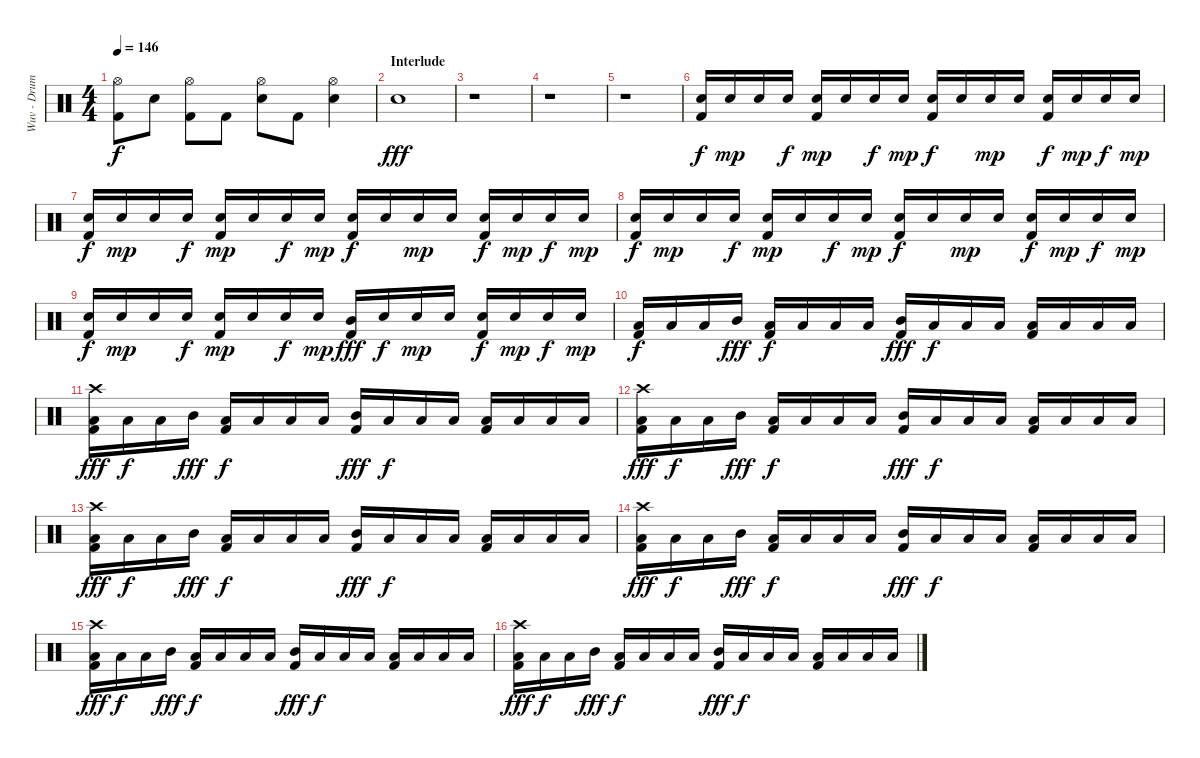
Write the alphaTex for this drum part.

\track ("Wuv - Drums" "Wuv - Drum") {instrument percussion}
\staff {score}
\articulation defaults
\ts (4 4)
\tempo 146
\clef neutral
\ks c
("Hi-Hat (open)" "Kick (hit) 2").8{dy f} "Electric Snare (hit)".8 ("Hi-Hat (open)" "Kick (hit) 2").8 "Kick (hit) 2".8 ("Hi-Hat (open)" "Electric Snare (hit)").8 "Kick (hit) 2".8 ("Hi-Hat (open)" "Electric Snare (hit)").4 |
\section ("" "Interlude")
"Electric Snare (hit)".1{dy fff} |
r.1 |
r.1 |
r.1 |
("Electric Snare (hit)" "Kick (hit) 2").16{dy f} "Electric Snare (hit)".16{dy mp} "Electric Snare (hit)".16 "Electric Snare (hit)".16{dy f} ("Electric Snare (hit)" "Kick (hit) 2").16{dy mp} "Electric Snare (hit)".16 "Electric Snare (hit)".16{dy f} "Electric Snare (hit)".16{dy mp} ("Electric Snare (hit)" "Kick (hit) 2").16{dy f} "Electric Snare (hit)".16 "Electric Snare (hit)".16{dy mp} "Electric Snare (hit)".16 ("Electric Snare (hit)" "Kick (hit) 2").16{dy f} "Electric Snare (hit)".16{dy mp} "Electric Snare (hit)".16{dy f} "Electric Snare (hit)".16{dy mp} |
("Electric Snare (hit)" "Kick (hit) 2").16{dy f} "Electric Snare (hit)".16{dy mp} "Electric Snare (hit)".16 "Electric Snare (hit)".16{dy f} ("Electric Snare (hit)" "Kick (hit) 2").16{dy mp} "Electric Snare (hit)".16 "Electric Snare (hit)".16{dy f} "Electric Snare (hit)".16{dy mp} ("Electric Snare (hit)" "Kick (hit) 2").16{dy f} "Electric Snare (hit)".16 "Electric Snare (hit)".16{dy mp} "Electric Snare (hit)".16 ("Electric Snare (hit)" "Kick (hit) 2").16{dy f} "Electric Snare (hit)".16{dy mp} "Electric Snare (hit)".16{dy f} "Electric Snare (hit)".16{dy mp} |
("Electric Snare (hit)" "Kick (hit) 2").16{dy f} "Electric Snare (hit)".16{dy mp} "Electric Snare (hit)".16 "Electric Snare (hit)".16{dy f} ("Electric Snare (hit)" "Kick (hit) 2").16{dy mp} "Electric Snare (hit)".16 "Electric Snare (hit)".16{dy f} "Electric Snare (hit)".16{dy mp} ("Electric Snare (hit)" "Kick (hit) 2").16{dy f} "Electric Snare (hit)".16 "Electric Snare (hit)".16{dy mp} "Electric Snare (hit)".16 ("Electric Snare (hit)" "Kick (hit) 2").16{dy f} "Electric Snare (hit)".16{dy mp} "Electric Snare (hit)".16{dy f} "Electric Snare (hit)".16{dy mp} |
("Electric Snare (hit)" "Kick (hit) 2").16{dy f} "Electric Snare (hit)".16{dy mp} "Electric Snare (hit)".16 "Electric Snare (hit)".16{dy f} ("Electric Snare (hit)" "Kick (hit) 2").16{dy mp} "Electric Snare (hit)".16 "Electric Snare (hit)".16{dy f} "Electric Snare (hit)".16{dy mp} ("Mid Tom (hit)" "Kick (hit) 2").16{dy fff} "Electric Snare (hit)".16{dy f} "Electric Snare (hit)".16{dy mp} "Electric Snare (hit)".16 ("Electric Snare (hit)" "Kick (hit) 2").16{dy f} "Electric Snare (hit)".16{dy mp} "Electric Snare (hit)".16{dy f} "Electric Snare (hit)".16{dy mp} |
("Low Tom (hit)" "Kick (hit) 2").16{dy f} "Low Tom (hit)".16 "Low Tom (hit)".16 "Mid Tom (hit)".16{dy fff} ("Low Tom (hit)" "Kick (hit) 2").16{dy f} "Low Tom (hit)".16 "Low Tom (hit)".16 "Low Tom (hit)".16 ("Mid Tom (hit)" "Kick (hit) 2").16{dy fff} "Low Tom (hit)".16{dy f} "Low Tom (hit)".16 "Low Tom (hit)".16 ("Low Tom (hit)" "Kick (hit) 2").16 "Low Tom (hit)".16 "Low Tom (hit)".16 "Low Tom (hit)".16 |
("Crash high (hit)" "Low Tom (hit)" "Kick (hit) 2").16{dy fff} "Low Tom (hit)".16{dy f} "Low Tom (hit)".16 "Mid Tom (hit)".16{dy fff} ("Low Tom (hit)" "Kick (hit) 2").16{dy f} "Low Tom (hit)".16 "Low Tom (hit)".16 "Low Tom (hit)".16 ("Mid Tom (hit)" "Kick (hit) 2").16{dy fff} "Low Tom (hit)".16{dy f} "Low Tom (hit)".16 "Low Tom (hit)".16 ("Low Tom (hit)" "Kick (hit) 2").16 "Low Tom (hit)".16 "Low Tom (hit)".16 "Low Tom (hit)".16 |
("Crash high (hit)" "Low Tom (hit)" "Kick (hit) 2").16{dy fff} "Low Tom (hit)".16{dy f} "Low Tom (hit)".16 "Mid Tom (hit)".16{dy fff} ("Low Tom (hit)" "Kick (hit) 2").16{dy f} "Low Tom (hit)".16 "Low Tom (hit)".16 "Low Tom (hit)".16 ("Mid Tom (hit)" "Kick (hit) 2").16{dy fff} "Low Tom (hit)".16{dy f} "Low Tom (hit)".16 "Low Tom (hit)".16 ("Low Tom (hit)" "Kick (hit) 2").16 "Low Tom (hit)".16 "Low Tom (hit)".16 "Low Tom (hit)".16 |
("Crash high (hit)" "Low Tom (hit)" "Kick (hit) 2").16{dy fff} "Low Tom (hit)".16{dy f} "Low Tom (hit)".16 "Mid Tom (hit)".16{dy fff} ("Low Tom (hit)" "Kick (hit) 2").16{dy f} "Low Tom (hit)".16 "Low Tom (hit)".16 "Low Tom (hit)".16 ("Mid Tom (hit)" "Kick (hit) 2").16{dy fff} "Low Tom (hit)".16{dy f} "Low Tom (hit)".16 "Low Tom (hit)".16 ("Low Tom (hit)" "Kick (hit) 2").16 "Low Tom (hit)".16 "Low Tom (hit)".16 "Low Tom (hit)".16 |
("Crash high (hit)" "Low Tom (hit)" "Kick (hit) 2").16{dy fff} "Low Tom (hit)".16{dy f} "Low Tom (hit)".16 "Mid Tom (hit)".16{dy fff} ("Low Tom (hit)" "Kick (hit) 2").16{dy f} "Low Tom (hit)".16 "Low Tom (hit)".16 "Low Tom (hit)".16 ("Mid Tom (hit)" "Kick (hit) 2").16{dy fff} "Low Tom (hit)".16{dy f} "Low Tom (hit)".16 "Low Tom (hit)".16 ("Low Tom (hit)" "Kick (hit) 2").16 "Low Tom (hit)".16 "Low Tom (hit)".16 "Low Tom (hit)".16 |
("Crash high (hit)" "Low Tom (hit)" "Kick (hit) 2").16{dy fff} "Low Tom (hit)".16{dy f} "Low Tom (hit)".16 "Mid Tom (hit)".16{dy fff} ("Low Tom (hit)" "Kick (hit) 2").16{dy f} "Low Tom (hit)".16 "Low Tom (hit)".16 "Low Tom (hit)".16 ("Mid Tom (hit)" "Kick (hit) 2").16{dy fff} "Low Tom (hit)".16{dy f} "Low Tom (hit)".16 "Low Tom (hit)".16 ("Low Tom (hit)" "Kick (hit) 2").16 "Low Tom (hit)".16 "Low Tom (hit)".16 "Low Tom (hit)".16 |
("Crash high (hit)" "Low Tom (hit)" "Kick (hit) 2").16{dy fff} "Low Tom (hit)".16{dy f} "Low Tom (hit)".16 "Mid Tom (hit)".16{dy fff} ("Low Tom (hit)" "Kick (hit) 2").16{dy f} "Low Tom (hit)".16 "Low Tom (hit)".16 "Low Tom (hit)".16 ("Mid Tom (hit)" "Kick (hit) 2").16{dy fff} "Low Tom (hit)".16{dy f} "Low Tom (hit)".16 "Low Tom (hit)".16 ("Low Tom (hit)" "Kick (hit) 2").16 "Low Tom (hit)".16 "Low Tom (hit)".16 "Low Tom (hit)".16
